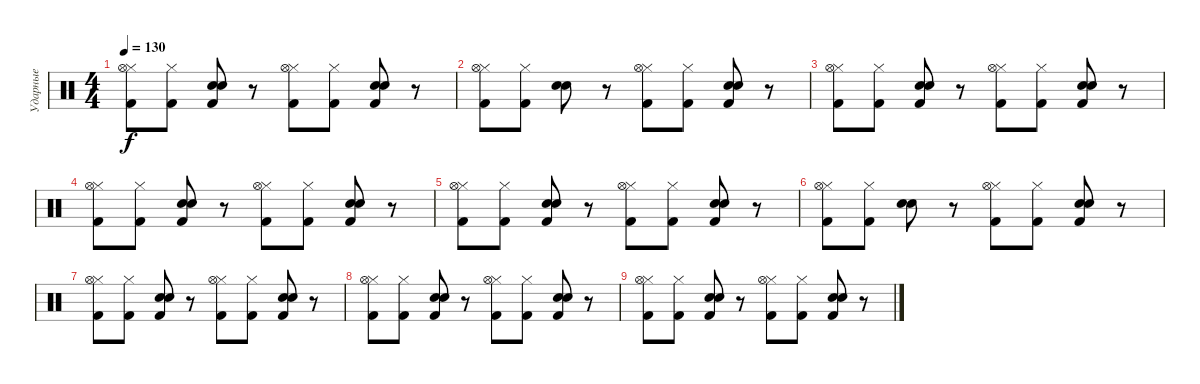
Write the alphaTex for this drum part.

\track ("Ударные" "Ударные") {instrument percussion}
\staff {score}
\articulation defaults
\ts (4 4)
\tempo 130
\clef neutral
\ks c
("Hi-Hat (closed)" "Kick (hit) 2" "Hi-Hat (open)").8{dy f} ("Hi-Hat (closed)" "Kick (hit) 2").8 ("Snare (hit) 2" "Kick (hit) 2" "Electric Snare (hit)").8 r.8 ("Hi-Hat (closed)" "Kick (hit) 2" "Hi-Hat (open)").8 ("Hi-Hat (closed)" "Kick (hit) 2").8 ("Snare (hit) 2" "Kick (hit) 2" "Electric Snare (hit)").8 r.8 |
("Hi-Hat (closed)" "Kick (hit) 2" "Hi-Hat (open)").8 ("Hi-Hat (closed)" "Kick (hit) 2").8 ("Snare (hit) 2" "Electric Snare (hit)").8 r.8 ("Hi-Hat (closed)" "Kick (hit) 2" "Hi-Hat (open)").8 ("Hi-Hat (closed)" "Kick (hit) 2").8 ("Snare (hit) 2" "Kick (hit) 2" "Electric Snare (hit)").8 r.8 |
("Hi-Hat (closed)" "Kick (hit) 2" "Hi-Hat (open)").8 ("Hi-Hat (closed)" "Kick (hit) 2").8 ("Snare (hit) 2" "Kick (hit) 2" "Electric Snare (hit)").8 r.8 ("Hi-Hat (closed)" "Kick (hit) 2" "Hi-Hat (open)").8 ("Hi-Hat (closed)" "Kick (hit) 2").8 ("Snare (hit) 2" "Kick (hit) 2" "Electric Snare (hit)").8 r.8 |
("Hi-Hat (closed)" "Kick (hit) 2" "Hi-Hat (open)").8 ("Hi-Hat (closed)" "Kick (hit) 2").8 ("Snare (hit) 2" "Kick (hit) 2" "Electric Snare (hit)").8 r.8 ("Hi-Hat (closed)" "Kick (hit) 2" "Hi-Hat (open)").8 ("Hi-Hat (closed)" "Kick (hit) 2").8 ("Snare (hit) 2" "Kick (hit) 2" "Electric Snare (hit)").8 r.8 |
("Hi-Hat (closed)" "Kick (hit) 2" "Hi-Hat (open)").8 ("Hi-Hat (closed)" "Kick (hit) 2").8 ("Snare (hit) 2" "Kick (hit) 2" "Electric Snare (hit)").8 r.8 ("Hi-Hat (closed)" "Kick (hit) 2" "Hi-Hat (open)").8 ("Hi-Hat (closed)" "Kick (hit) 2").8 ("Snare (hit) 2" "Kick (hit) 2" "Electric Snare (hit)").8 r.8 |
("Hi-Hat (closed)" "Kick (hit) 2" "Hi-Hat (open)").8 ("Hi-Hat (closed)" "Kick (hit) 2").8 ("Snare (hit) 2" "Electric Snare (hit)").8 r.8 ("Hi-Hat (closed)" "Kick (hit) 2" "Hi-Hat (open)").8 ("Hi-Hat (closed)" "Kick (hit) 2").8 ("Snare (hit) 2" "Kick (hit) 2" "Electric Snare (hit)").8 r.8 |
("Hi-Hat (closed)" "Kick (hit) 2" "Hi-Hat (open)").8 ("Hi-Hat (closed)" "Kick (hit) 2").8 ("Snare (hit) 2" "Kick (hit) 2" "Electric Snare (hit)").8 r.8 ("Hi-Hat (closed)" "Kick (hit) 2" "Hi-Hat (open)").8 ("Hi-Hat (closed)" "Kick (hit) 2").8 ("Snare (hit) 2" "Kick (hit) 2" "Electric Snare (hit)").8 r.8 |
("Hi-Hat (closed)" "Kick (hit) 2" "Hi-Hat (open)").8 ("Hi-Hat (closed)" "Kick (hit) 2").8 ("Snare (hit) 2" "Kick (hit) 2" "Electric Snare (hit)").8 r.8 ("Hi-Hat (closed)" "Kick (hit) 2" "Hi-Hat (open)").8 ("Hi-Hat (closed)" "Kick (hit) 2").8 ("Snare (hit) 2" "Kick (hit) 2" "Electric Snare (hit)").8 r.8 |
("Hi-Hat (closed)" "Kick (hit) 2" "Hi-Hat (open)").8 ("Hi-Hat (closed)" "Kick (hit) 2").8 ("Snare (hit) 2" "Kick (hit) 2" "Electric Snare (hit)").8 r.8 ("Hi-Hat (closed)" "Kick (hit) 2" "Hi-Hat (open)").8 ("Hi-Hat (closed)" "Kick (hit) 2").8 ("Snare (hit) 2" "Kick (hit) 2" "Electric Snare (hit)").8 r.8
